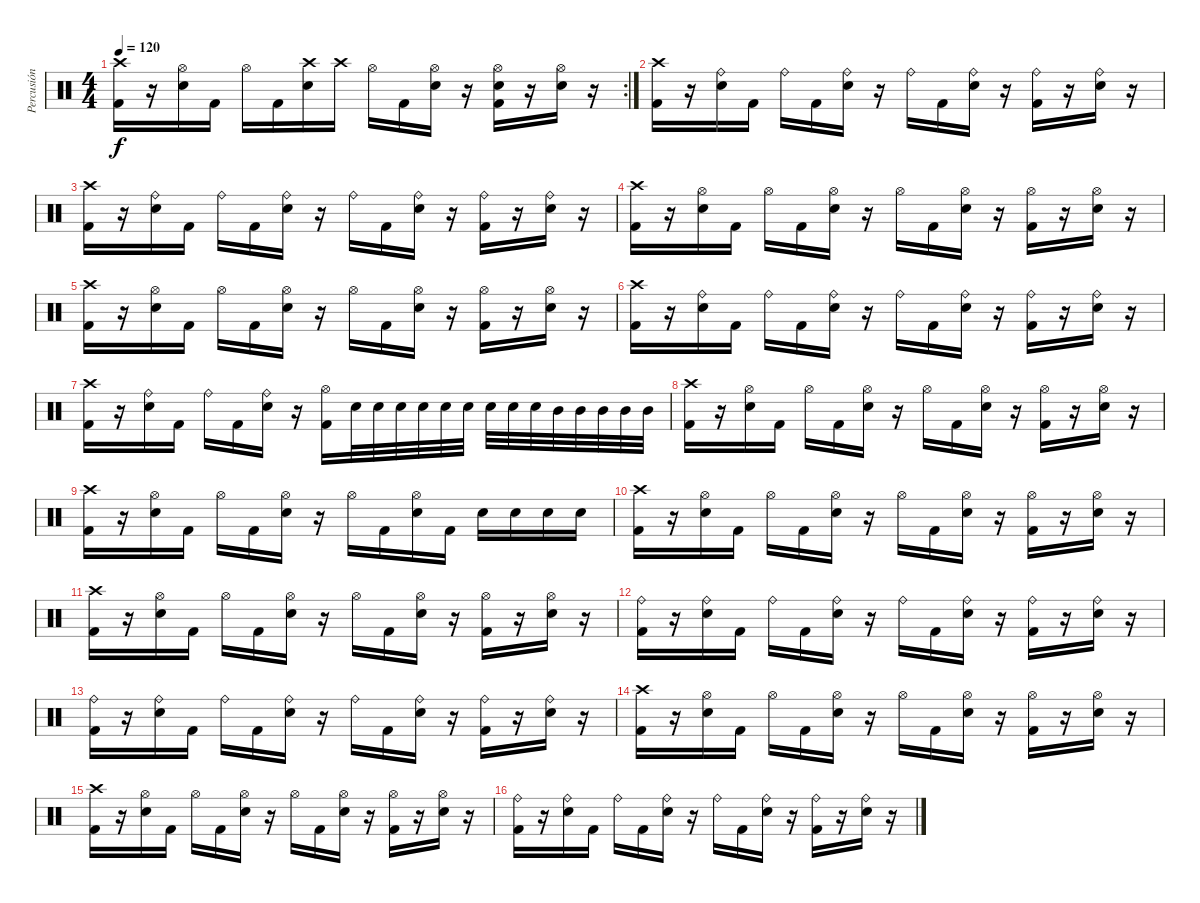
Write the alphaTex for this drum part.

\track ("Percusión" "Percusión") {instrument percussion}
\staff {score}
\articulation defaults
\rc 2
\ts (4 4)
\tempo 120
\clef neutral
\ks c
("Crash high (hit)" "Kick (hit) 2").16{dy f} r.16 ("Hi-Hat (open)" "Electric Snare (hit)").16 "Kick (hit) 2".16 "Hi-Hat (open)".16 "Kick (hit) 2".16 ("Crash high (hit)" "Electric Snare (hit)").16 "Crash high (hit)".16 "Hi-Hat (open)".16 "Kick (hit) 2".16 ("Hi-Hat (open)" "Electric Snare (hit)").16 r.16 ("Hi-Hat (open)" "Electric Snare (hit)" "Kick (hit) 2").16 r.16 ("Hi-Hat (open)" "Electric Snare (hit)").16 r.16 |
("Crash high (hit)" "Kick (hit) 2").16 r.16 ("Ride (bell)" "Electric Snare (hit)").16 "Kick (hit) 2".16 "Ride (bell)".16 "Kick (hit) 2".16 ("Ride (bell)" "Electric Snare (hit)").16 r.16 "Ride (bell)".16 "Kick (hit) 2".16 ("Ride (bell)" "Electric Snare (hit)").16 r.16 ("Ride (bell)" "Kick (hit) 2").16 r.16 ("Ride (bell)" "Electric Snare (hit)").16 r.16 |
("Crash high (hit)" "Kick (hit) 2").16 r.16 ("Ride (bell)" "Electric Snare (hit)").16 "Kick (hit) 2".16 "Ride (bell)".16 "Kick (hit) 2".16 ("Ride (bell)" "Electric Snare (hit)").16 r.16 "Ride (bell)".16 "Kick (hit) 2".16 ("Ride (bell)" "Electric Snare (hit)").16 r.16 ("Ride (bell)" "Kick (hit) 2").16 r.16 ("Ride (bell)" "Electric Snare (hit)").16 r.16 |
("Crash high (hit)" "Kick (hit) 2").16 r.16 ("Hi-Hat (open)" "Electric Snare (hit)").16 "Kick (hit) 2".16 "Hi-Hat (open)".16 "Kick (hit) 2".16 ("Hi-Hat (open)" "Electric Snare (hit)").16 r.16 "Hi-Hat (open)".16 "Kick (hit) 2".16 ("Hi-Hat (open)" "Electric Snare (hit)").16 r.16 ("Hi-Hat (open)" "Kick (hit) 2").16 r.16 ("Hi-Hat (open)" "Electric Snare (hit)").16 r.16 |
("Crash high (hit)" "Kick (hit) 2").16 r.16 ("Hi-Hat (open)" "Electric Snare (hit)").16 "Kick (hit) 2".16 "Hi-Hat (open)".16 "Kick (hit) 2".16 ("Hi-Hat (open)" "Electric Snare (hit)").16 r.16 "Hi-Hat (open)".16 "Kick (hit) 2".16 ("Hi-Hat (open)" "Electric Snare (hit)").16 r.16 ("Hi-Hat (open)" "Kick (hit) 2").16 r.16 ("Hi-Hat (open)" "Electric Snare (hit)").16 r.16 |
("Crash high (hit)" "Kick (hit) 2").16 r.16 ("Ride (bell)" "Electric Snare (hit)").16 "Kick (hit) 2".16 "Ride (bell)".16 "Kick (hit) 2".16 ("Ride (bell)" "Electric Snare (hit)").16 r.16 "Ride (bell)".16 "Kick (hit) 2".16 ("Ride (bell)" "Electric Snare (hit)").16 r.16 ("Ride (bell)" "Kick (hit) 2").16 r.16 ("Ride (bell)" "Electric Snare (hit)").16 r.16 |
("Crash high (hit)" "Kick (hit) 2").16 r.16 ("Ride (bell)" "Electric Snare (hit)").16 "Kick (hit) 2".16 "Ride (bell)".16 "Kick (hit) 2".16 ("Ride (bell)" "Electric Snare (hit)").16 r.16 ("Hi-Hat (open)" "Kick (hit) 2").16 "Electric Snare (hit)".32 "Electric Snare (hit)".32 "Electric Snare (hit)".32 "Electric Snare (hit)".32 "Electric Snare (hit)".32 "Electric Snare (hit)".32 "Electric Snare (hit)".32 "Electric Snare (hit)".32 "Electric Snare (hit)".32 "Mid Tom (hit)".32 "Mid Tom (hit)".32 "Mid Tom (hit)".32 "Mid Tom (hit)".32 "Mid Tom (hit)".32 |
("Crash high (hit)" "Kick (hit) 2").16 r.16 ("Hi-Hat (open)" "Electric Snare (hit)").16 "Kick (hit) 2".16 "Hi-Hat (open)".16 "Kick (hit) 2".16 ("Hi-Hat (open)" "Electric Snare (hit)").16 r.16 "Hi-Hat (open)".16 "Kick (hit) 2".16 ("Hi-Hat (open)" "Electric Snare (hit)").16 r.16 ("Hi-Hat (open)" "Kick (hit) 2").16 r.16 ("Hi-Hat (open)" "Electric Snare (hit)").16 r.16 |
("Crash high (hit)" "Kick (hit) 2").16 r.16 ("Hi-Hat (open)" "Electric Snare (hit)").16 "Kick (hit) 2".16 "Hi-Hat (open)".16 "Kick (hit) 2".16 ("Hi-Hat (open)" "Electric Snare (hit)").16 r.16 "Hi-Hat (open)".16 "Kick (hit) 2".16 ("Hi-Hat (open)" "Electric Snare (hit)").16 "Kick (hit) 2".16 "Electric Snare (hit)".16 "Electric Snare (hit)".16 "Electric Snare (hit)".16 "Electric Snare (hit)".16 |
("Crash high (hit)" "Kick (hit) 2").16 r.16 ("Hi-Hat (open)" "Electric Snare (hit)").16 "Kick (hit) 2".16 "Hi-Hat (open)".16 "Kick (hit) 2".16 ("Hi-Hat (open)" "Electric Snare (hit)").16 r.16 "Hi-Hat (open)".16 "Kick (hit) 2".16 ("Hi-Hat (open)" "Electric Snare (hit)").16 r.16 ("Hi-Hat (open)" "Kick (hit) 2").16 r.16 ("Hi-Hat (open)" "Electric Snare (hit)").16 r.16 |
("Crash high (hit)" "Kick (hit) 2").16 r.16 ("Hi-Hat (open)" "Electric Snare (hit)").16 "Kick (hit) 2".16 "Hi-Hat (open)".16 "Kick (hit) 2".16 ("Hi-Hat (open)" "Electric Snare (hit)").16 r.16 "Hi-Hat (open)".16 "Kick (hit) 2".16 ("Hi-Hat (open)" "Electric Snare (hit)").16 r.16 ("Hi-Hat (open)" "Kick (hit) 2").16 r.16 ("Hi-Hat (open)" "Electric Snare (hit)").16 r.16 |
("Ride (bell)" "Kick (hit) 2").16 r.16 ("Ride (bell)" "Electric Snare (hit)").16 "Kick (hit) 2".16 "Ride (bell)".16 "Kick (hit) 2".16 ("Ride (bell)" "Electric Snare (hit)").16 r.16 "Ride (bell)".16 "Kick (hit) 2".16 ("Ride (bell)" "Electric Snare (hit)").16 r.16 ("Ride (bell)" "Kick (hit) 2").16 r.16 ("Ride (bell)" "Electric Snare (hit)").16 r.16 |
("Ride (bell)" "Kick (hit) 2").16 r.16 ("Ride (bell)" "Electric Snare (hit)").16 "Kick (hit) 2".16 "Ride (bell)".16 "Kick (hit) 2".16 ("Ride (bell)" "Electric Snare (hit)").16 r.16 "Ride (bell)".16 "Kick (hit) 2".16 ("Ride (bell)" "Electric Snare (hit)").16 r.16 ("Ride (bell)" "Kick (hit) 2").16 r.16 ("Ride (bell)" "Electric Snare (hit)").16 r.16 |
("Crash high (hit)" "Kick (hit) 2").16 r.16 ("Hi-Hat (open)" "Electric Snare (hit)").16 "Kick (hit) 2".16 "Hi-Hat (open)".16 "Kick (hit) 2".16 ("Hi-Hat (open)" "Electric Snare (hit)").16 r.16 "Hi-Hat (open)".16 "Kick (hit) 2".16 ("Hi-Hat (open)" "Electric Snare (hit)").16 r.16 ("Hi-Hat (open)" "Kick (hit) 2").16 r.16 ("Hi-Hat (open)" "Electric Snare (hit)").16 r.16 |
("Crash high (hit)" "Kick (hit) 2").16 r.16 ("Hi-Hat (open)" "Electric Snare (hit)").16 "Kick (hit) 2".16 "Hi-Hat (open)".16 "Kick (hit) 2".16 ("Hi-Hat (open)" "Electric Snare (hit)").16 r.16 "Hi-Hat (open)".16 "Kick (hit) 2".16 ("Hi-Hat (open)" "Electric Snare (hit)").16 r.16 ("Hi-Hat (open)" "Kick (hit) 2").16 r.16 ("Hi-Hat (open)" "Electric Snare (hit)").16 r.16 |
("Ride (bell)" "Kick (hit) 2").16 r.16 ("Ride (bell)" "Electric Snare (hit)").16 "Kick (hit) 2".16 "Ride (bell)".16 "Kick (hit) 2".16 ("Ride (bell)" "Electric Snare (hit)").16 r.16 "Ride (bell)".16 "Kick (hit) 2".16 ("Ride (bell)" "Electric Snare (hit)").16 r.16 ("Ride (bell)" "Kick (hit) 2").16 r.16 ("Ride (bell)" "Electric Snare (hit)").16 r.16
